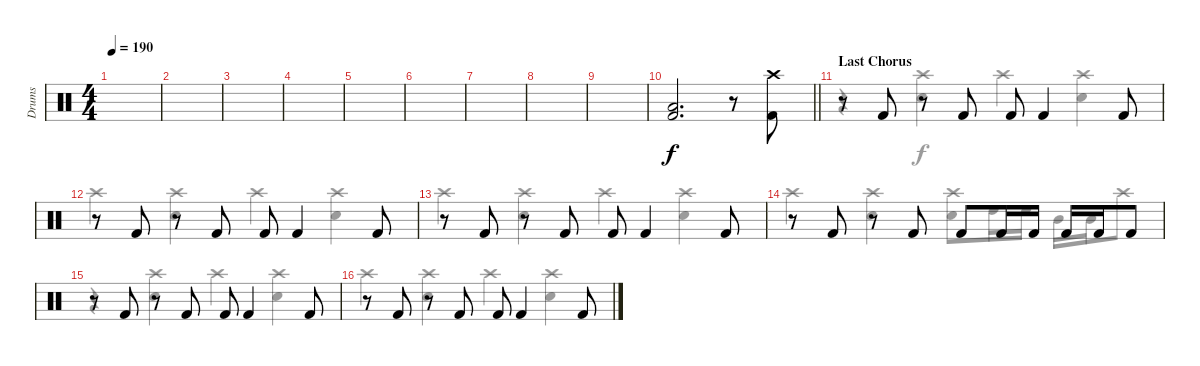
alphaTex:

\track ("Drums" "Drums") {instrument percussion}
\staff {score}
\articulation defaults
\voice
\ts (4 4)
\tempo 190
\clef neutral
\ks c
|
|
|
|
|
|
|
|
|
\barLineRight lightlight
("Kick (hit) 2" "Low Floor Tom (hit)").2{d} r.8 ("Kick (hit) 2" "Crash high (hit)").8 |
\section ("" "Last Chorus")
r.8 "Kick (hit) 2".8 r.8 "Kick (hit) 2".8 "Kick (hit) 2".8 "Kick (hit) 2".4 "Kick (hit) 2".8 |
r.8 "Kick (hit) 2".8 r.8 "Kick (hit) 2".8 "Kick (hit) 2".8 "Kick (hit) 2".4 "Kick (hit) 2".8 |
r.8 "Kick (hit) 2".8 r.8 "Kick (hit) 2".8 "Kick (hit) 2".8 "Kick (hit) 2".4 "Kick (hit) 2".8 |
r.8 "Kick (hit) 2".8 r.8 "Kick (hit) 2".8 "Kick (hit) 2".8 "Kick (hit) 2".16 "Kick (hit) 2".16 "Kick (hit) 2".16 "Kick (hit) 2".16 "Kick (hit) 2".8 |
r.8 "Kick (hit) 2".8 r.8 "Kick (hit) 2".8 "Kick (hit) 2".8 "Kick (hit) 2".4 "Kick (hit) 2".8 |
r.8 "Kick (hit) 2".8 r.8 "Kick (hit) 2".8 "Kick (hit) 2".8 "Kick (hit) 2".4 "Kick (hit) 2".8
\voice
\clef neutral
\ottava regular
\simile none
\ks c
|
|
|
|
|
|
|
|
|
\barLineRight lightlight
|
r.4 ("Electric Snare (hit)" "Crash high (hit)").4 "Crash high (hit)".4 ("Electric Snare (hit)" "Crash high (hit)").4 |
"Crash high (hit)".4 ("Electric Snare (hit)" "Crash high (hit)").4 "Crash high (hit)".4 ("Electric Snare (hit)" "Crash high (hit)").4 |
"Crash high (hit)".4 ("Electric Snare (hit)" "Crash high (hit)").4 "Crash high (hit)".4 ("Electric Snare (hit)" "Crash high (hit)").4 |
"Crash high (hit)".4 ("Electric Snare (hit)" "Crash high (hit)").4 ("Electric Snare (hit)" "Crash high (hit)").8 "High Tom (hit)".16 "High Tom (hit)".16 "Mid Tom (hit)".16 "Mid Tom (hit)".16 "Crash high (hit)".8 |
r.4 ("Electric Snare (hit)" "Crash high (hit)").4 "Crash high (hit)".4 ("Electric Snare (hit)" "Crash high (hit)").4 |
"Crash high (hit)".4 ("Electric Snare (hit)" "Crash high (hit)").4 "Crash high (hit)".4 ("Electric Snare (hit)" "Crash high (hit)").4
